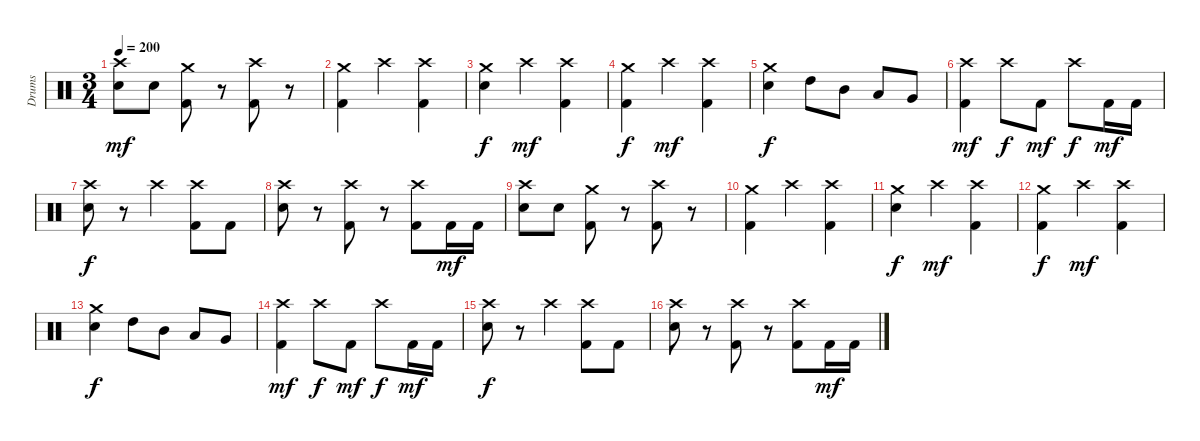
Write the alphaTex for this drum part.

\track ("Drums" "Drums") {instrument percussion}
\staff {score}
\articulation defaults
\ts (3 4)
\tempo 200
\clef neutral
\ks c
("Crash high (hit)" "Electric Snare (hit)").8{dy mf} "Electric Snare (hit)".8 ("Crash medium (hit)" "Kick (hit) 2").8 r.8 ("Crash high (hit)" "Kick (hit) 2").8 r.8 |
("Crash medium (hit)" "Kick (hit) 2").4 "Crash high (hit)".4 ("Crash high (hit)" "Kick (hit) 2").4 |
("Crash medium (hit)" "Electric Snare (hit)").4{dy f} "Crash high (hit)".4{dy mf} ("Crash high (hit)" "Kick (hit) 2").4 |
("Crash medium (hit)" "Kick (hit) 2").4{dy f} "Crash high (hit)".4{dy mf} ("Crash high (hit)" "Kick (hit) 2").4 |
("Crash medium (hit)" "Electric Snare (hit)").4{dy f} "High Tom (hit)".8 "Mid Tom (hit)".8 "Low Tom (hit)".8 "Very Low Tom (hit)".8 |
("Crash high (hit)" "Kick (hit) 2").4{dy mf} "Crash high (hit)".8{dy f} "Kick (hit) 2".8{dy mf} "Crash high (hit)".8{dy f} "Kick (hit) 2".16{dy mf} "Kick (hit) 2".16 |
("Crash high (hit)" "Electric Snare (hit)").8{dy f} r.8 "Crash high (hit)".4 ("Crash high (hit)" "Kick (hit) 2").8 "Kick (hit) 2".8 |
("Crash high (hit)" "Electric Snare (hit)").8 r.8 ("Crash high (hit)" "Kick (hit) 2").8 r.8 ("Crash high (hit)" "Kick (hit) 2").8 "Kick (hit) 2".16{dy mf} "Kick (hit) 2".16 |
("Crash high (hit)" "Electric Snare (hit)").8 "Electric Snare (hit)".8 ("Crash medium (hit)" "Kick (hit) 2").8 r.8 ("Crash high (hit)" "Kick (hit) 2").8 r.8 |
("Crash medium (hit)" "Kick (hit) 2").4 "Crash high (hit)".4 ("Crash high (hit)" "Kick (hit) 2").4 |
("Crash medium (hit)" "Electric Snare (hit)").4{dy f} "Crash high (hit)".4{dy mf} ("Crash high (hit)" "Kick (hit) 2").4 |
("Crash medium (hit)" "Kick (hit) 2").4{dy f} "Crash high (hit)".4{dy mf} ("Crash high (hit)" "Kick (hit) 2").4 |
("Crash medium (hit)" "Electric Snare (hit)").4{dy f} "High Tom (hit)".8 "Mid Tom (hit)".8 "Low Tom (hit)".8 "Very Low Tom (hit)".8 |
("Crash high (hit)" "Kick (hit) 2").4{dy mf} "Crash high (hit)".8{dy f} "Kick (hit) 2".8{dy mf} "Crash high (hit)".8{dy f} "Kick (hit) 2".16{dy mf} "Kick (hit) 2".16 |
("Crash high (hit)" "Electric Snare (hit)").8{dy f} r.8 "Crash high (hit)".4 ("Crash high (hit)" "Kick (hit) 2").8 "Kick (hit) 2".8 |
("Crash high (hit)" "Electric Snare (hit)").8 r.8 ("Crash high (hit)" "Kick (hit) 2").8 r.8 ("Crash high (hit)" "Kick (hit) 2").8 "Kick (hit) 2".16{dy mf} "Kick (hit) 2".16
